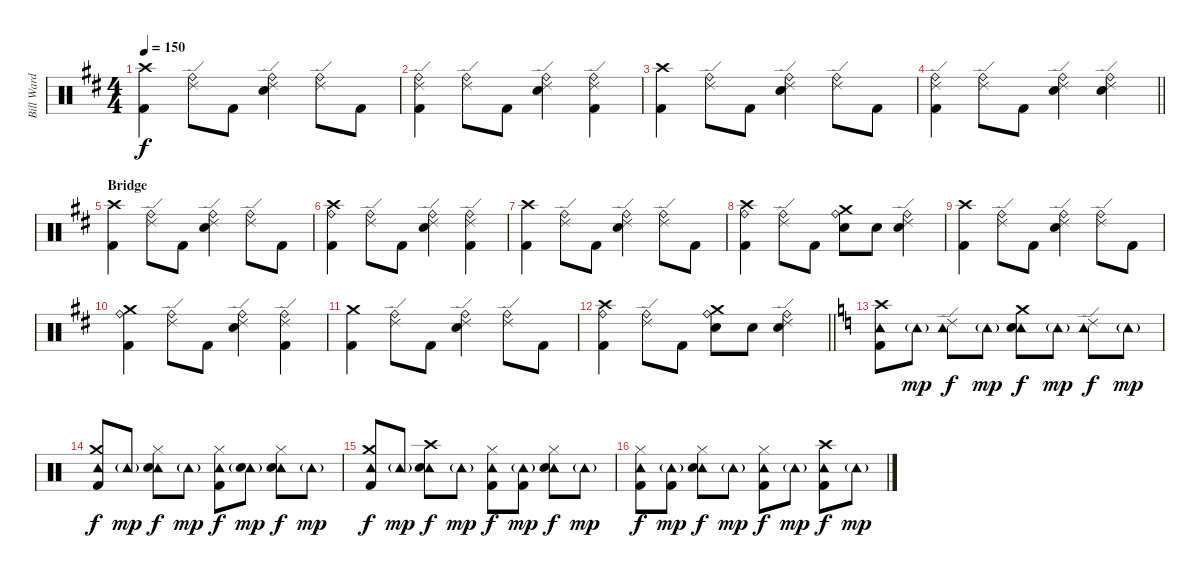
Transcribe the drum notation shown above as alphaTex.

\track ("Bill Ward" "Bill Ward") {instrument percussion}
\staff {score}
\articulation defaults
\ts (4 4)
\section ("" "")
\tempo 150
\clef neutral
\ks d
("Crash high (hit)" "Kick (hit) 2").4{dy f} ("Ride (edge) 2" "Ride (bell)").8 "Kick (hit) 2".8 ("Ride (edge) 2" "Ride (bell)" "Electric Snare (hit)").4 ("Ride (edge) 2" "Ride (bell)").8 "Kick (hit) 2".8 |
("Ride (edge) 2" "Ride (bell)" "Kick (hit) 2").4 ("Ride (edge) 2" "Ride (bell)").8 "Kick (hit) 2".8 ("Ride (edge) 2" "Ride (bell)" "Electric Snare (hit)").4 ("Ride (edge) 2" "Ride (bell)" "Kick (hit) 2").4 |
("Crash high (hit)" "Kick (hit) 2").4 ("Ride (edge) 2" "Ride (bell)").8 "Kick (hit) 2".8 ("Ride (edge) 2" "Ride (bell)" "Electric Snare (hit)").4 ("Ride (edge) 2" "Ride (bell)").8 "Kick (hit) 2".8 |
\barLineRight lightlight
("Ride (edge) 2" "Ride (bell)" "Kick (hit) 2").4 ("Ride (edge) 2" "Ride (bell)").8 "Kick (hit) 2".8 ("Ride (edge) 2" "Ride (bell)" "Electric Snare (hit)").4 ("Ride (edge) 2" "Ride (bell)" "Electric Snare (hit)").4 |
\section ("" "Bridge")
("Crash high (hit)" "Kick (hit) 2").4 ("Ride (edge) 2" "Ride (bell)").8 "Kick (hit) 2".8 ("Ride (edge) 2" "Ride (bell)" "Electric Snare (hit)").4 ("Ride (edge) 2" "Ride (bell)").8 "Kick (hit) 2".8 |
("Crash high (hit)" "Ride (bell)" "Kick (hit) 2").4 ("Ride (edge) 2" "Ride (bell)").8 "Kick (hit) 2".8 ("Ride (edge) 2" "Ride (bell)" "Electric Snare (hit)").4 ("Ride (edge) 2" "Ride (bell)" "Kick (hit) 2").4 |
("Crash high (hit)" "Kick (hit) 2").4 ("Ride (edge) 2" "Ride (bell)").8 "Kick (hit) 2".8 ("Ride (edge) 2" "Ride (bell)" "Electric Snare (hit)").4 ("Ride (edge) 2" "Ride (bell)").8 "Kick (hit) 2".8 |
("Crash high (hit)" "Ride (bell)" "Kick (hit) 2").4 ("Ride (edge) 2" "Ride (bell)").8 "Kick (hit) 2".8 ("Crash medium (hit)" "Ride (bell)" "Electric Snare (hit)").8 "Electric Snare (hit)".8 ("Ride (edge) 2" "Ride (bell)" "Electric Snare (hit)").4 |
("Crash high (hit)" "Kick (hit) 2").4 ("Ride (edge) 2" "Ride (bell)").8 "Kick (hit) 2".8 ("Ride (edge) 2" "Ride (bell)" "Electric Snare (hit)").4 ("Ride (edge) 2" "Ride (bell)").8 "Kick (hit) 2".8 |
("Crash medium (hit)" "Ride (bell)" "Kick (hit) 2").4 ("Ride (edge) 2" "Ride (bell)").8 "Kick (hit) 2".8 ("Ride (edge) 2" "Ride (bell)" "Electric Snare (hit)").4 ("Ride (edge) 2" "Ride (bell)" "Kick (hit) 2").4 |
("Crash medium (hit)" "Kick (hit) 2").4 ("Ride (edge) 2" "Ride (bell)").8 "Kick (hit) 2".8 ("Ride (edge) 2" "Ride (bell)" "Electric Snare (hit)").4 ("Ride (edge) 2" "Ride (bell)").8 "Kick (hit) 2".8 |
\barLineRight lightlight
("Crash high (hit)" "Ride (bell)" "Kick (hit) 2").4 ("Ride (edge) 2" "Ride (bell)").8 "Kick (hit) 2".8 ("Crash medium (hit)" "Ride (bell)" "Electric Snare (hit)").8 "Electric Snare (hit)".8 ("Ride (edge) 2" "Ride (bell)" "Electric Snare (hit)").4 |
\section ("" "")
\ks c
("Crash high (hit)" "Tambourine (hit)" "Kick (hit) 2").8 "Tambourine (hit)"{g}.8{dy mp} ("Ride (edge) 2" "Tambourine (hit)").8{dy f} "Tambourine (hit)"{g}.8{dy mp} ("Crash medium (hit)" "Tambourine (hit)" "Electric Snare (hit)").8{dy f} "Tambourine (hit)"{g}.8{dy mp} ("Ride (edge) 2" "Tambourine (hit)").8{dy f} "Tambourine (hit)"{g}.8{dy mp} |
("Crash medium (hit)" "Tambourine (hit)" "Kick (hit) 2").8{dy f} "Tambourine (hit)"{g}.8{dy mp} ("Hi-Hat (closed)" "Tambourine (hit)" "Electric Snare (hit)").8{dy f} "Tambourine (hit)"{g}.8{dy mp} ("Hi-Hat (closed)" "Tambourine (hit)" "Kick (hit) 2").8{dy f} ("Tambourine (hit)"{g} "Electric Snare (hit)").8{dy mp} ("Hi-Hat (closed)" "Tambourine (hit)" "Electric Snare (hit)").8{dy f} "Tambourine (hit)"{g}.8{dy mp} |
("Crash medium (hit)" "Tambourine (hit)" "Kick (hit) 2").8{dy f} "Tambourine (hit)"{g}.8{dy mp} ("Crash high (hit)" "Tambourine (hit)" "Electric Snare (hit)").8{dy f} "Tambourine (hit)"{g}.8{dy mp} ("Hi-Hat (closed)" "Tambourine (hit)" "Kick (hit) 2").8{dy f} ("Tambourine (hit)"{g} "Kick (hit) 2").8{dy mp} ("Hi-Hat (closed)" "Tambourine (hit)" "Electric Snare (hit)").8{dy f} "Tambourine (hit)"{g}.8{dy mp} |
("Hi-Hat (closed)" "Tambourine (hit)" "Kick (hit) 2").8{dy f} ("Tambourine (hit)"{g} "Kick (hit) 2").8{dy mp} ("Hi-Hat (closed)" "Tambourine (hit)" "Electric Snare (hit)").8{dy f} "Tambourine (hit)"{g}.8{dy mp} ("Hi-Hat (closed)" "Tambourine (hit)" "Kick (hit) 2").8{dy f} "Tambourine (hit)"{g}.8{dy mp} ("Crash high (hit)" "Tambourine (hit)" "Kick (hit) 2").8{dy f} "Tambourine (hit)"{g}.8{dy mp}
